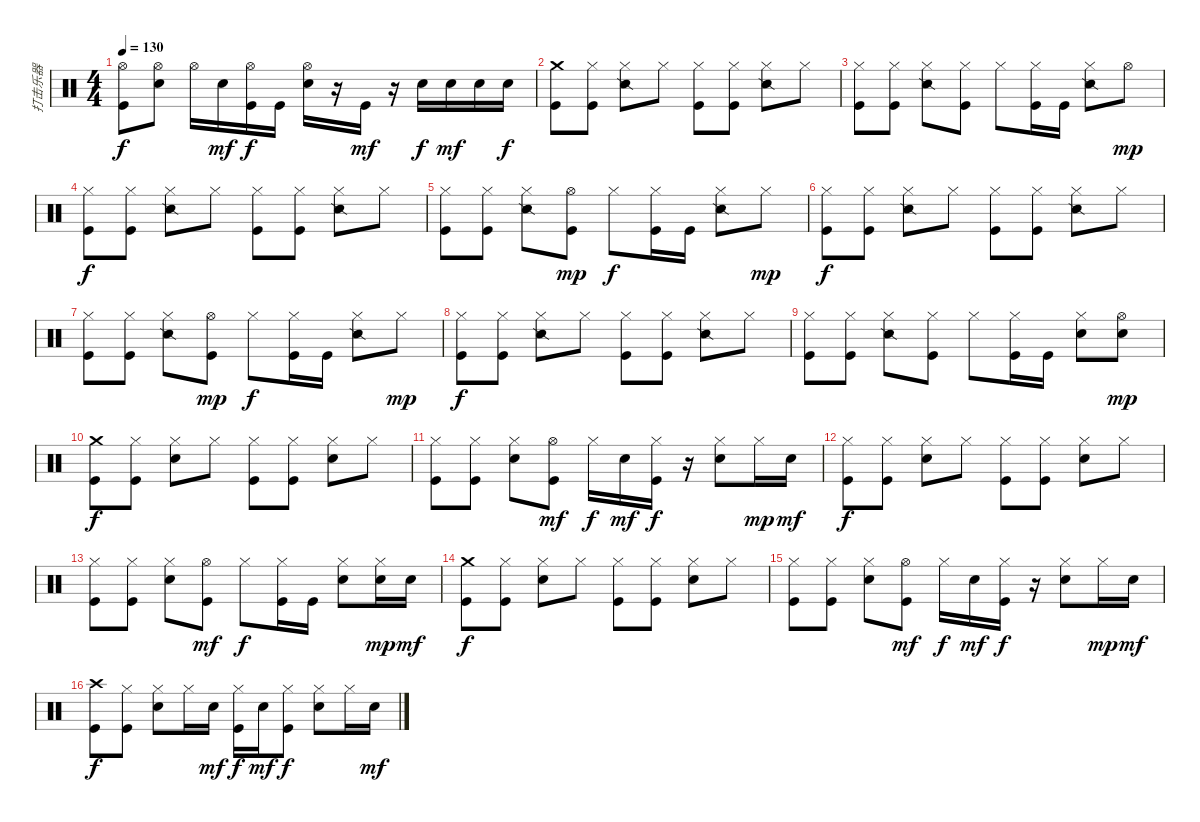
\track ("打击乐器" "打击乐器") {instrument percussion}
\staff {score}
\articulation defaults
\ts (4 4)
\tempo 130
\clef neutral
\ks c
("Hi-Hat (open)" "Kick (hit)").8{dy f} ("Hi-Hat (open)" "Electric Snare (hit)").8 "Hi-Hat (open)".16 "Electric Snare (hit)".16{dy mf} ("Hi-Hat (open)" "Kick (hit)").16{dy f} "Kick (hit)".16 ("Hi-Hat (open)" "Electric Snare (hit)").16 r.16 "Kick (hit)".16{dy mf} r.16 "Electric Snare (hit)".16{dy f} "Electric Snare (hit)".16{dy mf} "Electric Snare (hit)".16 "Electric Snare (hit)".16{dy f} |
("Crash medium (hit)" "Kick (hit)").8 ("Hi-Hat (closed)" "Kick (hit)").8 ("Hi-Hat (closed)" "Snare (side stick) 2").8 "Hi-Hat (closed)".8 ("Hi-Hat (closed)" "Kick (hit)").8 ("Hi-Hat (closed)" "Kick (hit)").8 ("Hi-Hat (closed)" "Snare (side stick) 2").8 "Hi-Hat (closed)".8 |
("Hi-Hat (closed)" "Kick (hit)").8 ("Hi-Hat (closed)" "Kick (hit)").8 ("Hi-Hat (closed)" "Snare (side stick) 2").8 ("Hi-Hat (closed)" "Kick (hit)").8 "Hi-Hat (closed)".8 ("Hi-Hat (closed)" "Kick (hit)").16 "Kick (hit)".16 ("Hi-Hat (closed)" "Snare (side stick) 2").8 "Hi-Hat (open)".8{dy mp} |
("Hi-Hat (closed)" "Kick (hit)").8{dy f} ("Hi-Hat (closed)" "Kick (hit)").8 ("Hi-Hat (closed)" "Snare (side stick) 2").8 "Hi-Hat (closed)".8 ("Hi-Hat (closed)" "Kick (hit)").8 ("Hi-Hat (closed)" "Kick (hit)").8 ("Hi-Hat (closed)" "Snare (side stick) 2").8 "Hi-Hat (closed)".8 |
("Hi-Hat (closed)" "Kick (hit)").8 ("Hi-Hat (closed)" "Kick (hit)").8 ("Hi-Hat (closed)" "Snare (side stick) 2").8 ("Hi-Hat (open)" "Kick (hit)").8{dy mp} "Hi-Hat (closed)".8{dy f} ("Hi-Hat (closed)" "Kick (hit)").16 "Kick (hit)".16 ("Hi-Hat (closed)" "Snare (side stick) 2").8 "Hi-Hat (closed)".8{dy mp} |
("Hi-Hat (closed)" "Kick (hit)").8{dy f} ("Hi-Hat (closed)" "Kick (hit)").8 ("Hi-Hat (closed)" "Snare (side stick) 2").8 "Hi-Hat (closed)".8 ("Hi-Hat (closed)" "Kick (hit)").8 ("Hi-Hat (closed)" "Kick (hit)").8 ("Hi-Hat (closed)" "Snare (side stick) 2").8 "Hi-Hat (closed)".8 |
("Hi-Hat (closed)" "Kick (hit)").8 ("Hi-Hat (closed)" "Kick (hit)").8 ("Hi-Hat (closed)" "Snare (side stick) 2").8 ("Hi-Hat (open)" "Kick (hit)").8{dy mp} "Hi-Hat (closed)".8{dy f} ("Hi-Hat (closed)" "Kick (hit)").16 "Kick (hit)".16 ("Hi-Hat (closed)" "Snare (side stick) 2").8 "Hi-Hat (closed)".8{dy mp} |
("Hi-Hat (closed)" "Kick (hit)").8{dy f} ("Hi-Hat (closed)" "Kick (hit)").8 ("Hi-Hat (closed)" "Snare (side stick) 2").8 "Hi-Hat (closed)".8 ("Hi-Hat (closed)" "Kick (hit)").8 ("Hi-Hat (closed)" "Kick (hit)").8 ("Hi-Hat (closed)" "Snare (side stick) 2").8 "Hi-Hat (closed)".8 |
("Hi-Hat (closed)" "Kick (hit)").8 ("Hi-Hat (closed)" "Kick (hit)").8 ("Hi-Hat (closed)" "Snare (side stick) 2").8 ("Hi-Hat (closed)" "Kick (hit)").8 "Hi-Hat (closed)".8 ("Hi-Hat (closed)" "Kick (hit)").16 "Kick (hit)".16 ("Hi-Hat (closed)" "Electric Snare (hit)").8 ("Hi-Hat (open)" "Electric Snare (hit)").8{dy mp} |
("Crash medium (hit)" "Kick (hit)").8{dy f} ("Hi-Hat (closed)" "Kick (hit)").8 ("Hi-Hat (closed)" "Electric Snare (hit)").8 "Hi-Hat (closed)".8 ("Hi-Hat (closed)" "Kick (hit)").8 ("Hi-Hat (closed)" "Kick (hit)").8 ("Hi-Hat (closed)" "Electric Snare (hit)").8 "Hi-Hat (closed)".8 |
("Hi-Hat (closed)" "Kick (hit)").8 ("Hi-Hat (closed)" "Kick (hit)").8 ("Hi-Hat (closed)" "Electric Snare (hit)").8 ("Hi-Hat (open)" "Kick (hit)").8{dy mf} "Hi-Hat (closed)".16{dy f} "Electric Snare (hit)".16{dy mf} ("Hi-Hat (closed)" "Kick (hit)").16{dy f} r.16 ("Hi-Hat (closed)" "Electric Snare (hit)").8 "Hi-Hat (closed)".16{dy mp} "Electric Snare (hit)".16{dy mf} |
("Hi-Hat (closed)" "Kick (hit)").8{dy f} ("Hi-Hat (closed)" "Kick (hit)").8 ("Hi-Hat (closed)" "Electric Snare (hit)").8 "Hi-Hat (closed)".8 ("Hi-Hat (closed)" "Kick (hit)").8 ("Hi-Hat (closed)" "Kick (hit)").8 ("Hi-Hat (closed)" "Electric Snare (hit)").8 "Hi-Hat (closed)".8 |
("Hi-Hat (closed)" "Kick (hit)").8 ("Hi-Hat (closed)" "Kick (hit)").8 ("Hi-Hat (closed)" "Electric Snare (hit)").8 ("Hi-Hat (open)" "Kick (hit)").8{dy mf} "Hi-Hat (closed)".8{dy f} ("Hi-Hat (closed)" "Kick (hit)").16 "Kick (hit)".16 ("Hi-Hat (closed)" "Electric Snare (hit)").8 ("Hi-Hat (closed)" "Electric Snare (hit)").16{dy mp} "Electric Snare (hit)".16{dy mf} |
("Crash medium (hit)" "Kick (hit)").8{dy f} ("Hi-Hat (closed)" "Kick (hit)").8 ("Hi-Hat (closed)" "Electric Snare (hit)").8 "Hi-Hat (closed)".8 ("Hi-Hat (closed)" "Kick (hit)").8 ("Hi-Hat (closed)" "Kick (hit)").8 ("Hi-Hat (closed)" "Electric Snare (hit)").8 "Hi-Hat (closed)".8 |
("Hi-Hat (closed)" "Kick (hit)").8 ("Hi-Hat (closed)" "Kick (hit)").8 ("Hi-Hat (closed)" "Electric Snare (hit)").8 ("Hi-Hat (open)" "Kick (hit)").8{dy mf} "Hi-Hat (closed)".16{dy f} "Electric Snare (hit)".16{dy mf} ("Hi-Hat (closed)" "Kick (hit)").16{dy f} r.16 ("Hi-Hat (closed)" "Electric Snare (hit)").8 "Hi-Hat (closed)".16{dy mp} "Electric Snare (hit)".16{dy mf} |
("Crash high (hit)" "Kick (hit)").8{dy f} ("Hi-Hat (closed)" "Kick (hit)").8 ("Hi-Hat (closed)" "Electric Snare (hit)").8 "Hi-Hat (closed)".16 "Electric Snare (hit)".16{dy mf} ("Hi-Hat (closed)" "Kick (hit)").16{dy f} "Electric Snare (hit)".16{dy mf} ("Hi-Hat (closed)" "Kick (hit)").8{dy f} ("Hi-Hat (closed)" "Electric Snare (hit)").8 "Hi-Hat (closed)".16 "Electric Snare (hit)".16{dy mf}
